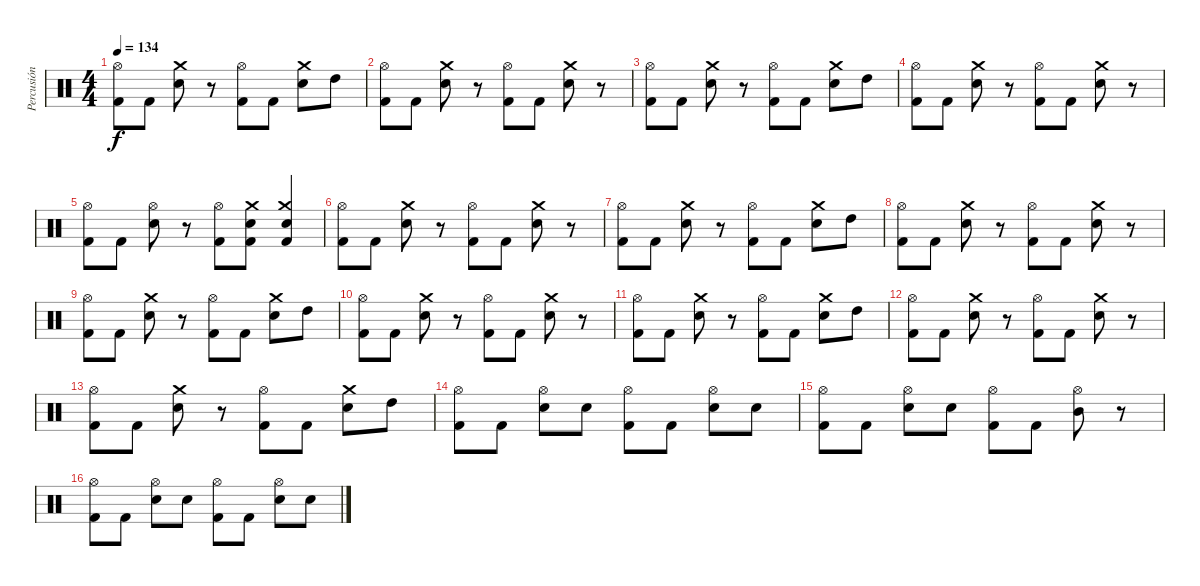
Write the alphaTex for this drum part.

\track ("Percusión" "Percusión") {instrument percussion}
\staff {score}
\articulation defaults
\ts (4 4)
\tempo 134
\clef neutral
\ks c
("Hi-Hat (open)" "Kick (hit) 2").8{dy f} "Kick (hit) 2".8 ("Crash medium (hit)" "Snare (hit) 2").8 r.8 ("Hi-Hat (open)" "Kick (hit) 2").8 "Kick (hit) 2".8 ("Crash medium (hit)" "Snare (hit) 2").8 "High Tom (hit)".8 |
("Hi-Hat (open)" "Kick (hit) 2").8 "Kick (hit) 2".8 ("Crash medium (hit)" "Snare (hit) 2").8 r.8 ("Hi-Hat (open)" "Kick (hit) 2").8 "Kick (hit) 2".8 ("Crash medium (hit)" "Snare (hit) 2").8 r.8 |
("Hi-Hat (open)" "Kick (hit) 2").8 "Kick (hit) 2".8 ("Crash medium (hit)" "Snare (hit) 2").8 r.8 ("Hi-Hat (open)" "Kick (hit) 2").8 "Kick (hit) 2".8 ("Crash medium (hit)" "Snare (hit) 2").8 "High Tom (hit)".8 |
("Hi-Hat (open)" "Kick (hit) 2").8 "Kick (hit) 2".8 ("Crash medium (hit)" "Snare (hit) 2").8 r.8 ("Hi-Hat (open)" "Kick (hit) 2").8 "Kick (hit) 2".8 ("Crash medium (hit)" "Snare (hit) 2").8 r.8 |
("Hi-Hat (open)" "Kick (hit) 2").8 "Kick (hit) 2".8 ("Hi-Hat (open)" "Snare (hit) 2").8 r.8 ("Hi-Hat (open)" "Kick (hit) 2").8 ("Crash medium (hit)" "Snare (hit) 2" "Kick (hit) 2").8 ("Crash medium (hit)" "Snare (hit) 2" "Kick (hit) 2").4 |
("Hi-Hat (open)" "Kick (hit) 2").8 "Kick (hit) 2".8 ("Crash medium (hit)" "Snare (hit) 2").8 r.8 ("Hi-Hat (open)" "Kick (hit) 2").8 "Kick (hit) 2".8 ("Crash medium (hit)" "Snare (hit) 2").8 r.8 |
("Hi-Hat (open)" "Kick (hit) 2").8 "Kick (hit) 2".8 ("Crash medium (hit)" "Snare (hit) 2").8 r.8 ("Hi-Hat (open)" "Kick (hit) 2").8 "Kick (hit) 2".8 ("Crash medium (hit)" "Snare (hit) 2").8 "High Tom (hit)".8 |
("Hi-Hat (open)" "Kick (hit) 2").8 "Kick (hit) 2".8 ("Crash medium (hit)" "Snare (hit) 2").8 r.8 ("Hi-Hat (open)" "Kick (hit) 2").8 "Kick (hit) 2".8 ("Crash medium (hit)" "Snare (hit) 2").8 r.8 |
("Hi-Hat (open)" "Kick (hit) 2").8 "Kick (hit) 2".8 ("Crash medium (hit)" "Snare (hit) 2").8 r.8 ("Hi-Hat (open)" "Kick (hit) 2").8 "Kick (hit) 2".8 ("Crash medium (hit)" "Snare (hit) 2").8 "High Tom (hit)".8 |
("Hi-Hat (open)" "Kick (hit) 2").8 "Kick (hit) 2".8 ("Crash medium (hit)" "Snare (hit) 2").8 r.8 ("Hi-Hat (open)" "Kick (hit) 2").8 "Kick (hit) 2".8 ("Crash medium (hit)" "Snare (hit) 2").8 r.8 |
("Hi-Hat (open)" "Kick (hit) 2").8 "Kick (hit) 2".8 ("Crash medium (hit)" "Snare (hit) 2").8 r.8 ("Hi-Hat (open)" "Kick (hit) 2").8 "Kick (hit) 2".8 ("Crash medium (hit)" "Snare (hit) 2").8 "High Tom (hit)".8 |
("Hi-Hat (open)" "Kick (hit) 2").8 "Kick (hit) 2".8 ("Crash medium (hit)" "Snare (hit) 2").8 r.8 ("Hi-Hat (open)" "Kick (hit) 2").8 "Kick (hit) 2".8 ("Crash medium (hit)" "Snare (hit) 2").8 r.8 |
("Hi-Hat (open)" "Kick (hit) 2").8 "Kick (hit) 2".8 ("Crash medium (hit)" "Snare (hit) 2").8 r.8 ("Hi-Hat (open)" "Kick (hit) 2").8 "Kick (hit) 2".8 ("Crash medium (hit)" "Snare (hit) 2").8 "High Tom (hit)".8 |
("Hi-Hat (open)" "Kick (hit) 2").8 "Kick (hit) 2".8 ("Hi-Hat (open)" "Snare (hit) 2").8 "Snare (hit) 2".8 ("Hi-Hat (open)" "Kick (hit) 2").8 "Kick (hit) 2".8 ("Hi-Hat (open)" "Snare (hit) 2").8 "Snare (hit) 2".8 |
("Hi-Hat (open)" "Kick (hit) 2").8 "Kick (hit) 2".8 ("Hi-Hat (open)" "Snare (hit) 2").8 "Snare (hit) 2".8 ("Hi-Hat (open)" "Kick (hit) 2").8 "Kick (hit) 2".8 ("Hi-Hat (open)" "Mid Tom (hit)").8 r.8 |
("Hi-Hat (open)" "Kick (hit) 2").8 "Kick (hit) 2".8 ("Hi-Hat (open)" "Snare (hit) 2").8 "Snare (hit) 2".8 ("Hi-Hat (open)" "Kick (hit) 2").8 "Kick (hit) 2".8 ("Hi-Hat (open)" "Snare (hit) 2").8 "Snare (hit) 2".8
